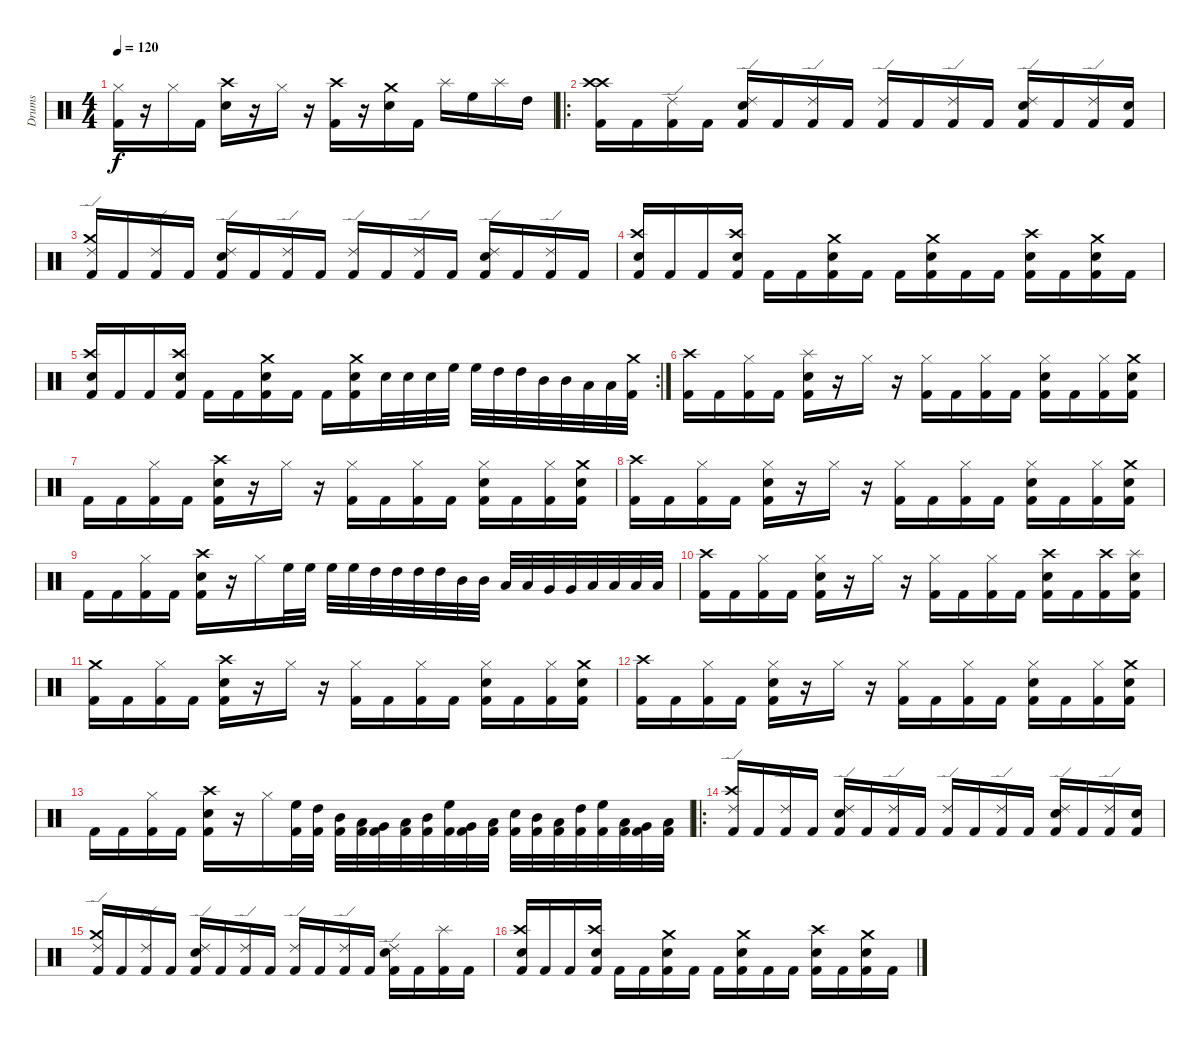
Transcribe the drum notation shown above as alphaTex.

\track ("Drums" "Drums") {instrument percussion}
\staff {score}
\articulation defaults
\ts (4 4)
\tempo 120
\clef neutral
\ks c
("Hi-Hat (closed)" "Kick (hit) 2").16{dy f} r.16 "Hi-Hat (closed)".16 "Kick (hit) 2".16 ("Crash high (hit)" "Snare (hit) 2").16 r.16 "Hi-Hat (closed)".16 r.16 ("Crash high (hit)" "Kick (hit) 2").16 r.16 ("Crash medium (hit)" "Snare (hit) 2").16 "Kick (hit) 2".16 "Splash (hit)".16 "High Floor Tom (hit)".16 "Splash (hit)".16 "High Tom (hit)".16 |
\ro
("Crash high (hit)" "Crash high (hit)" "Kick (hit) 2").16 "Kick (hit) 2".16 ("Ride (edge) 2" "Kick (hit) 2").16 "Kick (hit) 2".16 ("Ride (edge) 2" "Snare (hit) 2" "Kick (hit) 2").16 "Kick (hit) 2".16 ("Ride (edge) 2" "Kick (hit) 2").16 "Kick (hit) 2".16 ("Ride (edge) 2" "Kick (hit) 2").16 "Kick (hit) 2".16 ("Ride (edge) 2" "Kick (hit) 2").16 "Kick (hit) 2".16 ("Ride (edge) 2" "Snare (hit) 2" "Kick (hit) 2").16 "Kick (hit) 2".16 ("Ride (edge) 2" "Kick (hit) 2").16 ("Snare (hit) 2" "Kick (hit) 2").16 |
("Ride (edge) 2" "Crash medium (hit)" "Kick (hit) 2").16 "Kick (hit) 2".16 ("Ride (edge) 2" "Kick (hit) 2").16 "Kick (hit) 2".16 ("Ride (edge) 2" "Snare (hit) 2" "Kick (hit) 2").16 "Kick (hit) 2".16 ("Ride (edge) 2" "Kick (hit) 2").16 "Kick (hit) 2".16 ("Ride (edge) 2" "Kick (hit) 2").16 "Kick (hit) 2".16 ("Ride (edge) 2" "Kick (hit) 2").16 "Kick (hit) 2".16 ("Ride (edge) 2" "Snare (hit) 2" "Kick (hit) 2").16 "Kick (hit) 2".16 ("Ride (edge) 2" "Kick (hit) 2").16 "Kick (hit) 2".16 |
("Crash high (hit)" "Snare (hit) 2" "Kick (hit) 2").16 "Kick (hit) 2".16 "Kick (hit) 2".16 ("Crash high (hit)" "Snare (hit) 2" "Kick (hit) 2").16 "Kick (hit) 2".16 "Kick (hit) 2".16 ("Crash medium (hit)" "Snare (hit) 2" "Kick (hit) 2").16 "Kick (hit) 2".16 "Kick (hit) 2".16 ("Crash medium (hit)" "Snare (hit) 2" "Kick (hit) 2").16 "Kick (hit) 2".16 "Kick (hit) 2".16 ("Crash high (hit)" "Snare (hit) 2" "Kick (hit) 2").16 "Kick (hit) 2".16 ("Crash medium (hit)" "Snare (hit) 2" "Kick (hit) 2").16 "Kick (hit) 2".16 |
\rc 2
("Crash high (hit)" "Snare (hit) 2" "Kick (hit) 2").16 "Kick (hit) 2".16 "Kick (hit) 2".16 ("Crash high (hit)" "Snare (hit) 2" "Kick (hit) 2").16 "Kick (hit) 2".16 "Kick (hit) 2".16 ("Crash medium (hit)" "Snare (hit) 2" "Kick (hit) 2").16 "Kick (hit) 2".16 "Kick (hit) 2".16 ("Crash medium (hit)" "Snare (hit) 2" "Kick (hit) 2").16 "Snare (hit) 2".32 "Snare (hit) 2".32 "Snare (hit) 2".32 "High Floor Tom (hit)".32 "High Floor Tom (hit)".32 "High Tom (hit)".32 "High Tom (hit)".32 "Mid Tom (hit)".32 "Mid Tom (hit)".32 "Low Tom (hit)".32 "Low Tom (hit)".32 ("Crash medium (hit)" "Kick (hit) 2").32 |
("Crash high (hit)" "Kick (hit) 2").16 "Kick (hit) 2".16 ("Hi-Hat (closed)" "Kick (hit) 2").16 "Kick (hit) 2".16 ("Splash (hit)" "Snare (hit) 2" "Kick (hit) 2").16 r.16 "Hi-Hat (closed)".16 r.16 ("Hi-Hat (closed)" "Kick (hit) 2").16 "Kick (hit) 2".16 ("Hi-Hat (closed)" "Kick (hit) 2").16 "Kick (hit) 2".16 ("Hi-Hat (closed)" "Snare (hit) 2" "Kick (hit) 2").16 "Kick (hit) 2".16 ("Hi-Hat (closed)" "Kick (hit) 2").16 ("Crash medium (hit)" "Snare (hit) 2" "Kick (hit) 2").16 |
"Kick (hit) 2".16 "Kick (hit) 2".16 ("Hi-Hat (closed)" "Kick (hit) 2").16 "Kick (hit) 2".16 ("Crash high (hit)" "Snare (hit) 2" "Kick (hit) 2").16 r.16 "Hi-Hat (closed)".16 r.16 ("Hi-Hat (closed)" "Kick (hit) 2").16 "Kick (hit) 2".16 ("Hi-Hat (closed)" "Kick (hit) 2").16 "Kick (hit) 2".16 ("Hi-Hat (closed)" "Snare (hit) 2" "Kick (hit) 2").16 "Kick (hit) 2".16 ("Hi-Hat (closed)" "Kick (hit) 2").16 ("Crash medium (hit)" "Snare (hit) 2" "Kick (hit) 2").16 |
("Crash high (hit)" "Kick (hit) 2").16 "Kick (hit) 2".16 ("Hi-Hat (closed)" "Kick (hit) 2").16 "Kick (hit) 2".16 ("Hi-Hat (closed)" "Snare (hit) 2" "Kick (hit) 2").16 r.16 "Hi-Hat (closed)".16 r.16 ("Hi-Hat (closed)" "Kick (hit) 2").16 "Kick (hit) 2".16 ("Hi-Hat (closed)" "Kick (hit) 2").16 "Kick (hit) 2".16 ("Hi-Hat (closed)" "Snare (hit) 2" "Kick (hit) 2").16 "Kick (hit) 2".16 ("Hi-Hat (closed)" "Kick (hit) 2").16 ("Crash medium (hit)" "Snare (hit) 2" "Kick (hit) 2").16 |
"Kick (hit) 2".16 "Kick (hit) 2".16 ("Hi-Hat (closed)" "Kick (hit) 2").16 "Kick (hit) 2".16 ("Crash high (hit)" "Snare (hit) 2" "Kick (hit) 2").16 r.16 "Hi-Hat (closed)".16 "High Floor Tom (hit)".32 "High Floor Tom (hit)".32 "High Floor Tom (hit)".32 "High Floor Tom (hit)".32 "High Tom (hit)".32 "High Tom (hit)".32 "High Tom (hit)".32 "High Tom (hit)".32 "Mid Tom (hit)".32 "Mid Tom (hit)".32 "Low Tom (hit)".32 "Low Tom (hit)".32 "Very Low Tom (hit)".32 "Very Low Tom (hit)".32 "Low Floor Tom (hit)".32 "Low Floor Tom (hit)".32 "Low Floor Tom (hit)".32 "Low Floor Tom (hit)".32 |
("Crash high (hit)" "Kick (hit) 2").16 "Kick (hit) 2".16 ("Hi-Hat (closed)" "Kick (hit) 2").16 "Kick (hit) 2".16 ("Hi-Hat (closed)" "Snare (hit) 2" "Kick (hit) 2").16 r.16 "Hi-Hat (closed)".16 r.16 ("Hi-Hat (closed)" "Kick (hit) 2").16 "Kick (hit) 2".16 ("Hi-Hat (closed)" "Kick (hit) 2").16 "Kick (hit) 2".16 ("Crash high (hit)" "Snare (hit) 2" "Kick (hit) 2").16 "Kick (hit) 2".16 ("Crash high (hit)" "Kick (hit) 2").16 ("Splash (hit)" "Snare (hit) 2" "Kick (hit) 2").16 |
("Crash medium (hit)" "Kick (hit) 2").16 "Kick (hit) 2".16 ("Hi-Hat (closed)" "Kick (hit) 2").16 "Kick (hit) 2".16 ("Crash high (hit)" "Snare (hit) 2" "Kick (hit) 2").16 r.16 "Hi-Hat (closed)".16 r.16 ("Hi-Hat (closed)" "Kick (hit) 2").16 "Kick (hit) 2".16 ("Hi-Hat (closed)" "Kick (hit) 2").16 "Kick (hit) 2".16 ("Hi-Hat (closed)" "Snare (hit) 2" "Kick (hit) 2").16 "Kick (hit) 2".16 ("Hi-Hat (closed)" "Kick (hit) 2").16 ("Crash medium (hit)" "Snare (hit) 2" "Kick (hit) 2").16 |
("Crash high (hit)" "Kick (hit) 2").16 "Kick (hit) 2".16 ("Hi-Hat (closed)" "Kick (hit) 2").16 "Kick (hit) 2".16 ("Hi-Hat (closed)" "Snare (hit) 2" "Kick (hit) 2").16 r.16 "Hi-Hat (closed)".16 r.16 ("Hi-Hat (closed)" "Kick (hit) 2").16 "Kick (hit) 2".16 ("Hi-Hat (closed)" "Kick (hit) 2").16 "Kick (hit) 2".16 ("Hi-Hat (closed)" "Snare (hit) 2" "Kick (hit) 2").16 "Kick (hit) 2".16 ("Hi-Hat (closed)" "Kick (hit) 2").16 ("Crash medium (hit)" "Snare (hit) 2" "Kick (hit) 2").16 |
"Kick (hit) 2".16 "Kick (hit) 2".16 ("Hi-Hat (closed)" "Kick (hit) 2").16 "Kick (hit) 2".16 ("Crash high (hit)" "Snare (hit) 2" "Kick (hit) 2").16 r.16 "Hi-Hat (closed)".16 ("High Floor Tom (hit)" "Kick (hit) 2").32 ("High Tom (hit)" "Kick (hit) 2").32 ("Mid Tom (hit)" "Kick (hit) 2").32 ("Low Tom (hit)" "Kick (hit) 2").32 ("Very Low Tom (hit)" "Kick (hit) 2").32 ("Low Floor Tom (hit)" "Kick (hit) 2").32 ("Mid Tom (hit)" "Kick (hit) 2").32 ("High Floor Tom (hit)" "Kick (hit) 2").32 ("Very Low Tom (hit)" "Kick (hit) 2").32 ("Low Floor Tom (hit)" "Kick (hit) 2").32 ("Snare (hit) 2" "Kick (hit) 2").32 ("Mid Tom (hit)" "Kick (hit) 2").32 ("Low Tom (hit)" "Kick (hit) 2").32 ("High Tom (hit)" "Kick (hit) 2").32 ("High Floor Tom (hit)" "Kick (hit) 2").32 ("Low Floor Tom (hit)" "Kick (hit) 2").32 ("Very Low Tom (hit)" "Kick (hit) 2").32 ("Low Floor Tom (hit)" "Kick (hit) 2").32 |
\ro
("Ride (edge) 2" "Crash high (hit)" "Kick (hit) 2").16 "Kick (hit) 2".16 ("Ride (edge) 2" "Kick (hit) 2").16 "Kick (hit) 2".16 ("Ride (edge) 2" "Snare (hit) 2" "Kick (hit) 2").16 "Kick (hit) 2".16 ("Ride (edge) 2" "Kick (hit) 2").16 "Kick (hit) 2".16 ("Ride (edge) 2" "Kick (hit) 2").16 "Kick (hit) 2".16 ("Ride (edge) 2" "Kick (hit) 2").16 "Kick (hit) 2".16 ("Ride (edge) 2" "Snare (hit) 2" "Kick (hit) 2").16 "Kick (hit) 2".16 ("Ride (edge) 2" "Kick (hit) 2").16 ("Snare (hit) 2" "Kick (hit) 2").16 |
("Ride (edge) 2" "Crash medium (hit)" "Kick (hit) 2").16 "Kick (hit) 2".16 ("Ride (edge) 2" "Kick (hit) 2").16 "Kick (hit) 2".16 ("Ride (edge) 2" "Snare (hit) 2" "Kick (hit) 2").16 "Kick (hit) 2".16 ("Ride (edge) 2" "Kick (hit) 2").16 "Kick (hit) 2".16 ("Ride (edge) 2" "Kick (hit) 2").16 "Kick (hit) 2".16 ("Ride (edge) 2" "Kick (hit) 2").16 "Kick (hit) 2".16 ("Ride (edge) 2" "Snare (hit) 2" "Kick (hit) 2").16 "Kick (hit) 2".16 ("Splash (hit)" "Kick (hit) 2").16 "Kick (hit) 2".16 |
("Crash high (hit)" "Snare (hit) 2" "Kick (hit) 2").16 "Kick (hit) 2".16 "Kick (hit) 2".16 ("Crash high (hit)" "Snare (hit) 2" "Kick (hit) 2").16 "Kick (hit) 2".16 "Kick (hit) 2".16 ("Crash medium (hit)" "Snare (hit) 2" "Kick (hit) 2").16 "Kick (hit) 2".16 "Kick (hit) 2".16 ("Crash medium (hit)" "Snare (hit) 2" "Kick (hit) 2").16 "Kick (hit) 2".16 "Kick (hit) 2".16 ("Crash high (hit)" "Snare (hit) 2" "Kick (hit) 2").16 "Kick (hit) 2".16 ("Crash medium (hit)" "Snare (hit) 2" "Kick (hit) 2").16 "Kick (hit) 2".16
